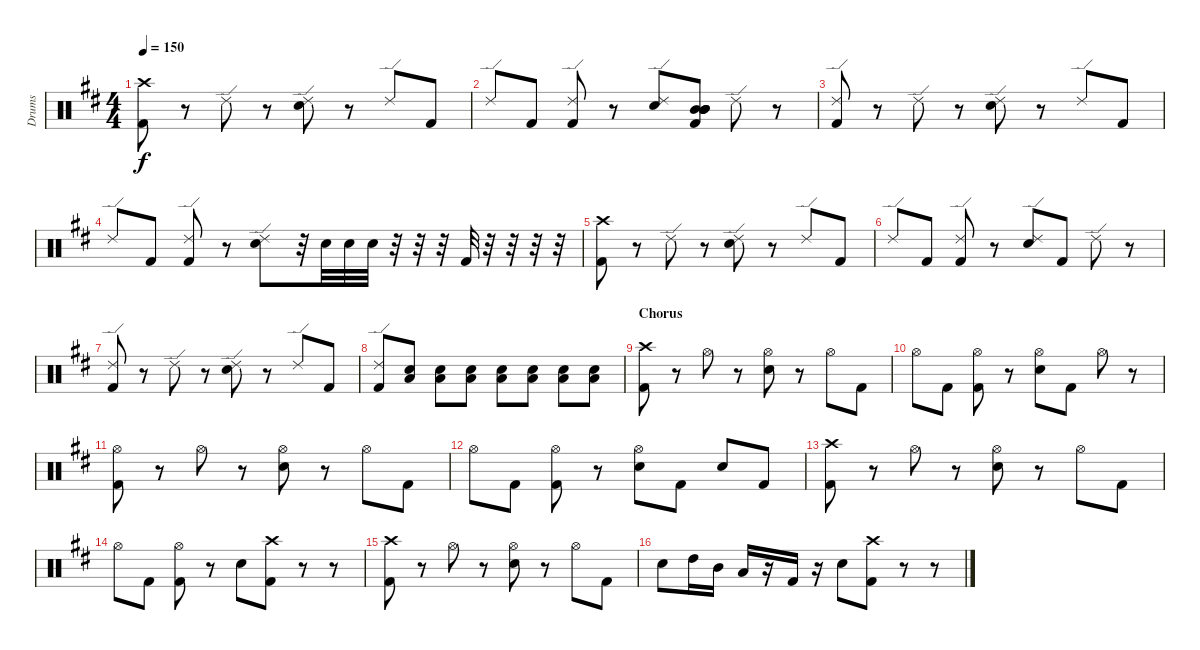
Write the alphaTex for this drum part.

\track ("Drums" "Drums") {instrument percussion}
\staff {score}
\articulation defaults
\ts (4 4)
\tempo 150
\clef neutral
\ks d
("Crash high (hit)" "Kick (hit) 2").8{dy f} r.8 "Ride (edge) 2".8 r.8 ("Ride (edge) 2" "Snare (hit) 2").8 r.8 "Ride (edge) 2".8 "Kick (hit) 2".8 |
"Ride (edge) 2".8 "Kick (hit) 2".8 ("Ride (edge) 2" "Kick (hit) 2").8 r.8 ("Ride (edge) 2" "Snare (hit) 2").8 ("Mid Tom (hit)" "Mid Tom (hit)" "Mid Tom (hit)" "Mid Tom (hit)" "Kick (hit) 2").8 "Ride (edge) 2".8 r.8 |
("Ride (edge) 2" "Kick (hit) 2").8 r.8 "Ride (edge) 2".8 r.8 ("Ride (edge) 2" "Snare (hit) 2").8 r.8 "Ride (edge) 2".8 "Kick (hit) 2".8 |
"Ride (edge) 2".8 "Kick (hit) 2".8 ("Ride (edge) 2" "Kick (hit) 2").8 r.8 ("Ride (edge) 2" "Snare (hit) 2").8 r.32 "Snare (hit) 2".32 "Snare (hit) 2".32 "Snare (hit) 2".32 r.32 r.32 r.32 "Kick (hit) 2".32 r.32 r.32 r.32 r.32 |
("Crash high (hit)" "Kick (hit) 2").8 r.8 "Ride (edge) 2".8 r.8 ("Ride (edge) 2" "Snare (hit) 2").8 r.8 "Ride (edge) 2".8 "Kick (hit) 2".8 |
"Ride (edge) 2".8 "Kick (hit) 2".8 ("Ride (edge) 2" "Kick (hit) 2").8 r.8 ("Ride (edge) 2" "Snare (hit) 2").8 "Kick (hit) 2".8 "Ride (edge) 2".8 r.8 |
("Ride (edge) 2" "Kick (hit) 2").8 r.8 "Ride (edge) 2".8 r.8 ("Ride (edge) 2" "Snare (hit) 2").8 r.8 "Ride (edge) 2".8 "Kick (hit) 2".8 |
("Ride (edge) 2" "Kick (hit) 2").8 ("Low Tom (hit)" "Snare (hit) 2").8 ("Low Tom (hit)" "Snare (hit) 2").8 ("Low Tom (hit)" "Snare (hit) 2").8 ("Low Tom (hit)" "Snare (hit) 2").8 ("Low Tom (hit)" "Snare (hit) 2").8 ("Low Tom (hit)" "Snare (hit) 2").8 ("Low Tom (hit)" "Snare (hit) 2").8 |
\section ("" "Chorus")
("Crash high (hit)" "Kick (hit) 2").8 r.8 "Hi-Hat (open)".8 r.8 ("Hi-Hat (open)" "Snare (hit) 2").8 r.8 "Hi-Hat (open)".8 "Kick (hit) 2".8 |
"Hi-Hat (open)".8 "Kick (hit) 2".8 ("Hi-Hat (open)" "Kick (hit) 2").8 r.8 ("Hi-Hat (open)" "Snare (hit) 2").8 "Kick (hit) 2".8 "Hi-Hat (open)".8 r.8 |
("Hi-Hat (open)" "Kick (hit) 2").8 r.8 "Hi-Hat (open)".8 r.8 ("Hi-Hat (open)" "Snare (hit) 2").8 r.8 "Hi-Hat (open)".8 "Kick (hit) 2".8 |
"Hi-Hat (open)".8 "Kick (hit) 2".8 ("Hi-Hat (open)" "Kick (hit) 2").8 r.8 ("Hi-Hat (open)" "Snare (hit) 2").8 "Kick (hit) 2".8 "Snare (hit) 2".8 "Kick (hit) 2".8 |
("Crash high (hit)" "Kick (hit) 2").8 r.8 "Hi-Hat (open)".8 r.8 ("Hi-Hat (open)" "Snare (hit) 2").8 r.8 "Hi-Hat (open)".8 "Kick (hit) 2".8 |
"Hi-Hat (open)".8 "Kick (hit) 2".8 ("Hi-Hat (open)" "Kick (hit) 2").8 r.8 "Snare (hit) 2".8 ("Crash high (hit)" "Kick (hit) 2").8 r.8 r.8 |
("Crash high (hit)" "Kick (hit) 2").8 r.8 "Hi-Hat (open)".8 r.8 ("Hi-Hat (open)" "Snare (hit) 2").8 r.8 "Hi-Hat (open)".8 "Kick (hit) 2".8 |
"Snare (hit) 2".8 "High Tom (hit)".16 "Mid Tom (hit)".16 "Low Tom (hit)".16 r.16 "Kick (hit) 2".16 r.16 "Snare (hit) 2".8 ("Crash high (hit)" "Kick (hit) 2").8 r.8 r.8
